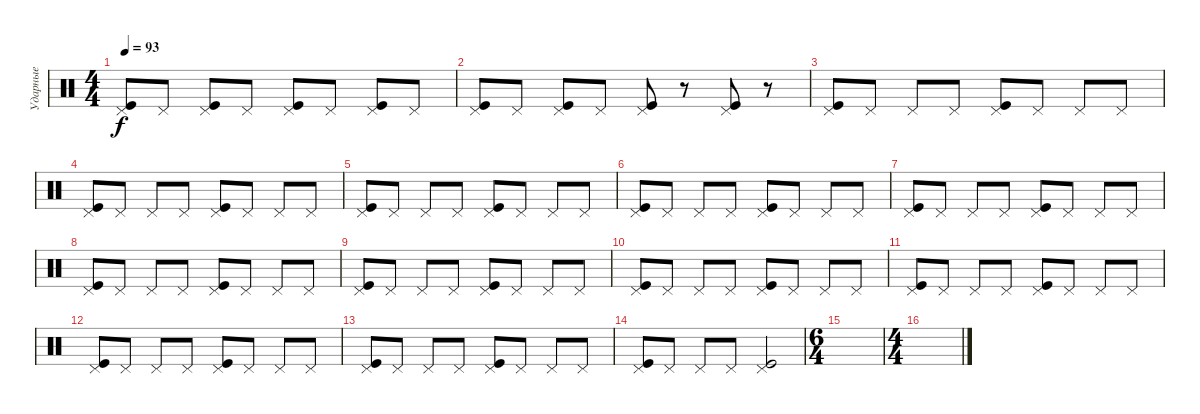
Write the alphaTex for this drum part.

\track ("Ударные" "Ударные") {instrument percussion}
\staff {score}
\articulation defaults
\ts (4 4)
\tempo 93
\clef neutral
\ks c
("Kick (hit)" "Pedal Hi-Hat (hit)").8{dy f} "Pedal Hi-Hat (hit)".8 ("Kick (hit)" "Pedal Hi-Hat (hit)").8 "Pedal Hi-Hat (hit)".8 ("Kick (hit)" "Pedal Hi-Hat (hit)").8 "Pedal Hi-Hat (hit)".8 ("Kick (hit)" "Pedal Hi-Hat (hit)").8 "Pedal Hi-Hat (hit)".8 |
("Kick (hit)" "Pedal Hi-Hat (hit)").8 "Pedal Hi-Hat (hit)".8 ("Kick (hit)" "Pedal Hi-Hat (hit)").8 "Pedal Hi-Hat (hit)".8 ("Kick (hit)" "Pedal Hi-Hat (hit)").8 r.8 ("Kick (hit)" "Pedal Hi-Hat (hit)").8 r.8 |
("Kick (hit)" "Pedal Hi-Hat (hit)").8 "Pedal Hi-Hat (hit)".8 "Pedal Hi-Hat (hit)".8 "Pedal Hi-Hat (hit)".8 ("Kick (hit)" "Pedal Hi-Hat (hit)").8 "Pedal Hi-Hat (hit)".8 "Pedal Hi-Hat (hit)".8 "Pedal Hi-Hat (hit)".8 |
("Kick (hit)" "Pedal Hi-Hat (hit)").8 "Pedal Hi-Hat (hit)".8 "Pedal Hi-Hat (hit)".8 "Pedal Hi-Hat (hit)".8 ("Kick (hit)" "Pedal Hi-Hat (hit)").8 "Pedal Hi-Hat (hit)".8 "Pedal Hi-Hat (hit)".8 "Pedal Hi-Hat (hit)".8 |
("Kick (hit)" "Pedal Hi-Hat (hit)").8 "Pedal Hi-Hat (hit)".8 "Pedal Hi-Hat (hit)".8 "Pedal Hi-Hat (hit)".8 ("Kick (hit)" "Pedal Hi-Hat (hit)").8 "Pedal Hi-Hat (hit)".8 "Pedal Hi-Hat (hit)".8 "Pedal Hi-Hat (hit)".8 |
("Kick (hit)" "Pedal Hi-Hat (hit)").8 "Pedal Hi-Hat (hit)".8 "Pedal Hi-Hat (hit)".8 "Pedal Hi-Hat (hit)".8 ("Kick (hit)" "Pedal Hi-Hat (hit)").8 "Pedal Hi-Hat (hit)".8 "Pedal Hi-Hat (hit)".8 "Pedal Hi-Hat (hit)".8 |
("Kick (hit)" "Pedal Hi-Hat (hit)").8 "Pedal Hi-Hat (hit)".8 "Pedal Hi-Hat (hit)".8 "Pedal Hi-Hat (hit)".8 ("Kick (hit)" "Pedal Hi-Hat (hit)").8 "Pedal Hi-Hat (hit)".8 "Pedal Hi-Hat (hit)".8 "Pedal Hi-Hat (hit)".8 |
("Kick (hit)" "Pedal Hi-Hat (hit)").8 "Pedal Hi-Hat (hit)".8 "Pedal Hi-Hat (hit)".8 "Pedal Hi-Hat (hit)".8 ("Kick (hit)" "Pedal Hi-Hat (hit)").8 "Pedal Hi-Hat (hit)".8 "Pedal Hi-Hat (hit)".8 "Pedal Hi-Hat (hit)".8 |
("Kick (hit)" "Pedal Hi-Hat (hit)").8 "Pedal Hi-Hat (hit)".8 "Pedal Hi-Hat (hit)".8 "Pedal Hi-Hat (hit)".8 ("Kick (hit)" "Pedal Hi-Hat (hit)").8 "Pedal Hi-Hat (hit)".8 "Pedal Hi-Hat (hit)".8 "Pedal Hi-Hat (hit)".8 |
("Kick (hit)" "Pedal Hi-Hat (hit)").8 "Pedal Hi-Hat (hit)".8 "Pedal Hi-Hat (hit)".8 "Pedal Hi-Hat (hit)".8 ("Kick (hit)" "Pedal Hi-Hat (hit)").8 "Pedal Hi-Hat (hit)".8 "Pedal Hi-Hat (hit)".8 "Pedal Hi-Hat (hit)".8 |
("Kick (hit)" "Pedal Hi-Hat (hit)").8 "Pedal Hi-Hat (hit)".8 "Pedal Hi-Hat (hit)".8 "Pedal Hi-Hat (hit)".8 ("Kick (hit)" "Pedal Hi-Hat (hit)").8 "Pedal Hi-Hat (hit)".8 "Pedal Hi-Hat (hit)".8 "Pedal Hi-Hat (hit)".8 |
("Kick (hit)" "Pedal Hi-Hat (hit)").8 "Pedal Hi-Hat (hit)".8 "Pedal Hi-Hat (hit)".8 "Pedal Hi-Hat (hit)".8 ("Kick (hit)" "Pedal Hi-Hat (hit)").8 "Pedal Hi-Hat (hit)".8 "Pedal Hi-Hat (hit)".8 "Pedal Hi-Hat (hit)".8 |
("Kick (hit)" "Pedal Hi-Hat (hit)").8 "Pedal Hi-Hat (hit)".8 "Pedal Hi-Hat (hit)".8 "Pedal Hi-Hat (hit)".8 ("Kick (hit)" "Pedal Hi-Hat (hit)").8 "Pedal Hi-Hat (hit)".8 "Pedal Hi-Hat (hit)".8 "Pedal Hi-Hat (hit)".8 |
("Kick (hit)" "Pedal Hi-Hat (hit)").8 "Pedal Hi-Hat (hit)".8 "Pedal Hi-Hat (hit)".8 "Pedal Hi-Hat (hit)".8 ("Kick (hit)" "Pedal Hi-Hat (hit)").2 |
\ts (6 4)
|
\ts (4 4)
